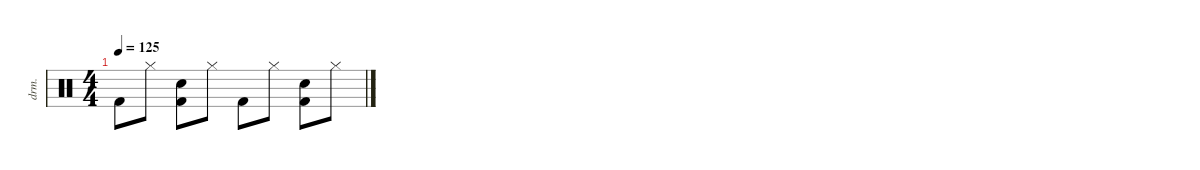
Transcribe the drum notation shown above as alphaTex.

\defaultSystemsLayout 4
\hideDynamics
\bracketExtendMode nobrackets
\otherSystemsTrackNameOrientation horizontal
\track ("Beat" "drm.") {instrument percussion}
\staff {score}
\articulation defaults
\ts (4 4)
\tempo 125
\clef neutral
\ks c "Kick (hit) 2".8{dy f beam Down} "Hi-Hat (closed)".8{beam Down}
("Snare (hit) 2" "Kick (hit) 2").8{beam Down} "Hi-Hat (closed)".8{beam Down} "Kick (hit) 2".8{beam Down} "Hi-Hat (closed)".8{beam Down} ("Snare (hit) 2" "Kick (hit) 2").8{beam Down} "Hi-Hat (closed)".8{beam Down}
